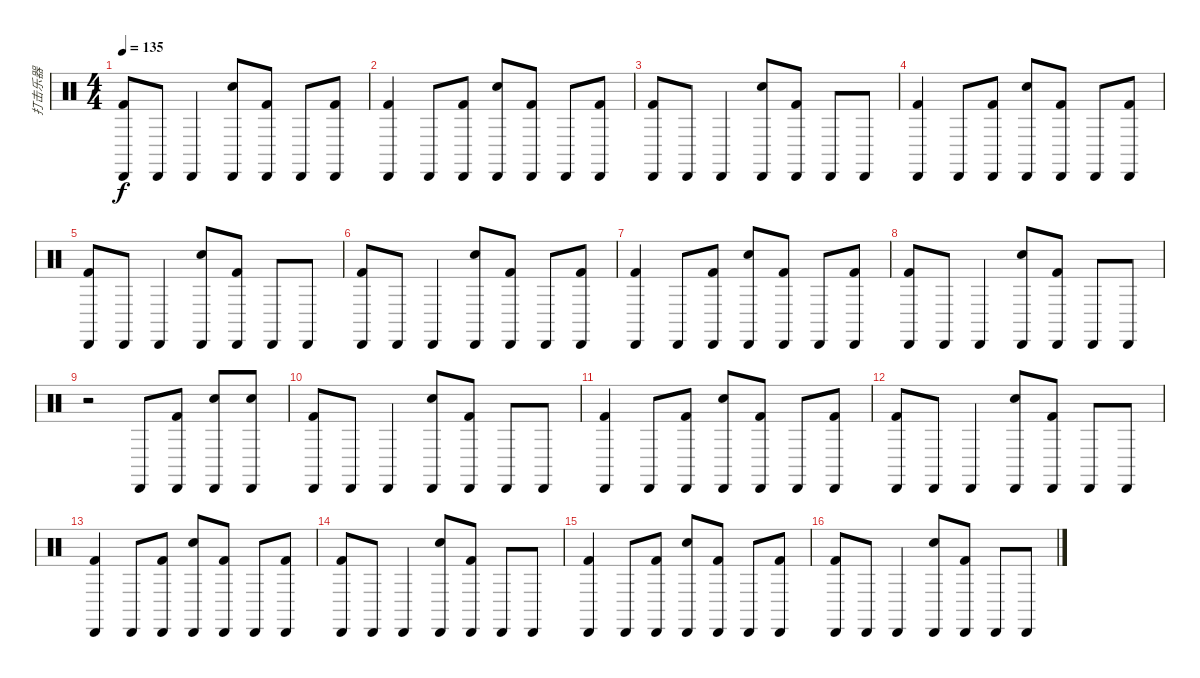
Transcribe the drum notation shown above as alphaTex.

\track ("打击乐器" "打击乐器") {instrument percussion}
\staff {score}
\articulation defaults
\ts (4 4)
\tempo 135
\clef neutral
\ks c
("Cabasa (hit)" "Kick (hit) 2").8{dy f} "Cabasa (hit)".8 "Cabasa (hit)".4 ("Snare (hit) 2" "Cabasa (hit)").8 ("Cabasa (hit)" "Kick (hit) 2").8 "Cabasa (hit)".8 ("Cabasa (hit)" "Kick (hit) 2").8 |
("Cabasa (hit)" "Kick (hit) 2").4 "Cabasa (hit)".8 ("Cabasa (hit)" "Kick (hit) 2").8 ("Snare (hit) 2" "Cabasa (hit)").8 ("Cabasa (hit)" "Kick (hit) 2").8 "Cabasa (hit)".8 ("Cabasa (hit)" "Kick (hit) 2").8 |
("Cabasa (hit)" "Kick (hit) 2").8 "Cabasa (hit)".8 "Cabasa (hit)".4 ("Snare (hit) 2" "Cabasa (hit)").8 ("Cabasa (hit)" "Kick (hit) 2").8 "Cabasa (hit)".8 "Cabasa (hit)".8 |
("Cabasa (hit)" "Kick (hit) 2").4 "Cabasa (hit)".8 ("Cabasa (hit)" "Kick (hit) 2").8 ("Snare (hit) 2" "Cabasa (hit)").8 ("Cabasa (hit)" "Kick (hit) 2").8 "Cabasa (hit)".8 ("Cabasa (hit)" "Kick (hit) 2").8 |
("Cabasa (hit)" "Kick (hit) 2").8 "Cabasa (hit)".8 "Cabasa (hit)".4 ("Snare (hit) 2" "Cabasa (hit)").8 ("Cabasa (hit)" "Kick (hit) 2").8 "Cabasa (hit)".8 "Cabasa (hit)".8 |
("Cabasa (hit)" "Kick (hit) 2").8 "Cabasa (hit)".8 "Cabasa (hit)".4 ("Snare (hit) 2" "Cabasa (hit)").8 ("Cabasa (hit)" "Kick (hit) 2").8 "Cabasa (hit)".8 ("Cabasa (hit)" "Kick (hit) 2").8 |
("Cabasa (hit)" "Kick (hit) 2").4 "Cabasa (hit)".8 ("Cabasa (hit)" "Kick (hit) 2").8 ("Snare (hit) 2" "Cabasa (hit)").8 ("Cabasa (hit)" "Kick (hit) 2").8 "Cabasa (hit)".8 ("Cabasa (hit)" "Kick (hit) 2").8 |
("Cabasa (hit)" "Kick (hit) 2").8 "Cabasa (hit)".8 "Cabasa (hit)".4 ("Snare (hit) 2" "Cabasa (hit)").8 ("Cabasa (hit)" "Kick (hit) 2").8 "Cabasa (hit)".8 "Cabasa (hit)".8 |
r.2 "Cabasa (hit)".8 ("Cabasa (hit)" "Kick (hit) 2").8 ("Snare (hit) 2" "Cabasa (hit)").8 ("Snare (hit) 2" "Cabasa (hit)").8 |
("Cabasa (hit)" "Kick (hit) 2").8 "Cabasa (hit)".8 "Cabasa (hit)".4 ("Snare (hit) 2" "Cabasa (hit)").8 ("Cabasa (hit)" "Kick (hit) 2").8 "Cabasa (hit)".8 "Cabasa (hit)".8 |
("Cabasa (hit)" "Kick (hit) 2").4 "Cabasa (hit)".8 ("Cabasa (hit)" "Kick (hit) 2").8 ("Snare (hit) 2" "Cabasa (hit)").8 ("Cabasa (hit)" "Kick (hit) 2").8 "Cabasa (hit)".8 ("Cabasa (hit)" "Kick (hit) 2").8 |
("Cabasa (hit)" "Kick (hit) 2").8 "Cabasa (hit)".8 "Cabasa (hit)".4 ("Snare (hit) 2" "Cabasa (hit)").8 ("Cabasa (hit)" "Kick (hit) 2").8 "Cabasa (hit)".8 "Cabasa (hit)".8 |
("Cabasa (hit)" "Kick (hit) 2").4 "Cabasa (hit)".8 ("Cabasa (hit)" "Kick (hit) 2").8 ("Snare (hit) 2" "Cabasa (hit)").8 ("Cabasa (hit)" "Kick (hit) 2").8 "Cabasa (hit)".8 ("Cabasa (hit)" "Kick (hit) 2").8 |
("Cabasa (hit)" "Kick (hit) 2").8 "Cabasa (hit)".8 "Cabasa (hit)".4 ("Snare (hit) 2" "Cabasa (hit)").8 ("Cabasa (hit)" "Kick (hit) 2").8 "Cabasa (hit)".8 "Cabasa (hit)".8 |
("Cabasa (hit)" "Kick (hit) 2").4 "Cabasa (hit)".8 ("Cabasa (hit)" "Kick (hit) 2").8 ("Snare (hit) 2" "Cabasa (hit)").8 ("Cabasa (hit)" "Kick (hit) 2").8 "Cabasa (hit)".8 ("Cabasa (hit)" "Kick (hit) 2").8 |
("Cabasa (hit)" "Kick (hit) 2").8 "Cabasa (hit)".8 "Cabasa (hit)".4 ("Snare (hit) 2" "Cabasa (hit)").8 ("Cabasa (hit)" "Kick (hit) 2").8 "Cabasa (hit)".8 "Cabasa (hit)".8
